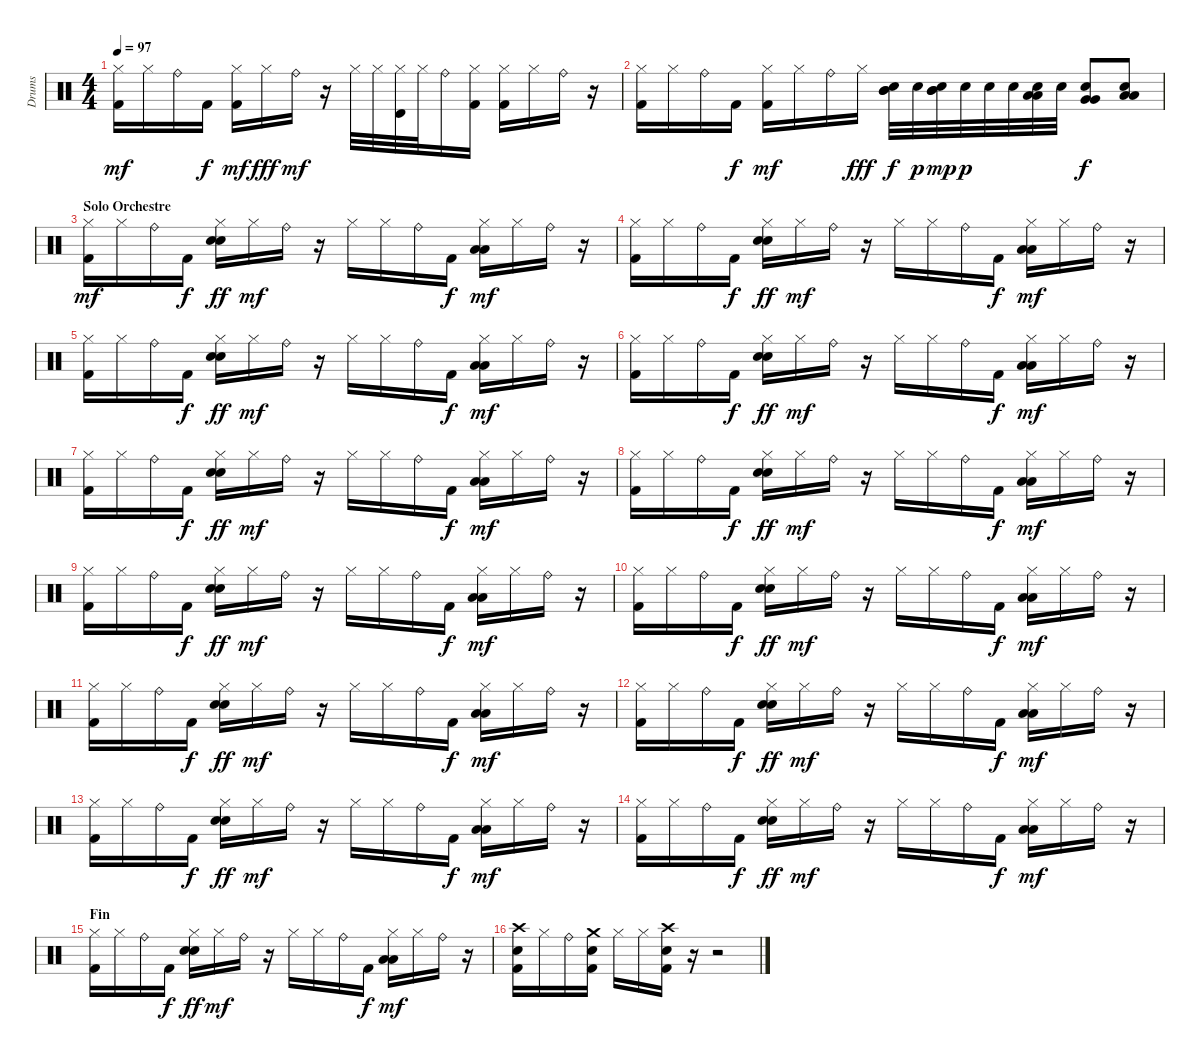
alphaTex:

\track ("Drums" "Drums") {instrument percussion}
\staff {score}
\articulation defaults
\ts (4 4)
\tempo 97
\clef neutral
\ks c
("Hi-Hat (closed)" "Kick (hit) 2").16{dy mf} "Hi-Hat (closed)".16 "Ride (bell)".16 "Kick (hit) 2".16{dy f} ("Hi-Hat (closed)" "Kick (hit) 2").16{dy mf} "Hi-Hat (closed)".16{dy fff} "Ride (bell)".16{dy mf} r.16 "Hi-Hat (closed)".32 "Hi-Hat (closed)".32 ("Hi-Hat (closed)" "Timbale high (hit)").32 "Hi-Hat (closed)".32 "Ride (bell)".16 ("Hi-Hat (closed)" "Kick (hit) 2").16 ("Hi-Hat (closed)" "Kick (hit) 2").16 "Hi-Hat (closed)".16 "Ride (bell)".16 r.16 |
("Hi-Hat (closed)" "Kick (hit) 2").16 "Hi-Hat (closed)".16 "Ride (bell)".16 "Kick (hit) 2".16{dy f} ("Hi-Hat (closed)" "Kick (hit) 2").16{dy mf} "Hi-Hat (closed)".16 "Ride (bell)".16 "Hi-Hat (closed)".16{dy fff} ("Electric Snare (hit)" "Mid Tom (hit)" "Mid Tom (hit)").32{dy f} "Electric Snare (hit)".32{dy p} ("Electric Snare (hit)" "Mid Tom (hit)" "Mid Tom (hit)").32{dy mp} "Electric Snare (hit)".32{dy p} "Electric Snare (hit)".32 "Electric Snare (hit)".32 ("Electric Snare (hit)" "Low Tom (hit)" "Low Tom (hit)").32 "Electric Snare (hit)".32 ("Electric Snare (hit)" "Very Low Tom (hit)" "Very Low Tom (hit)").8{dy f} ("Electric Snare (hit)" "Low Floor Tom (hit)" "Low Floor Tom (hit)").8 |
\section ("" "Solo Orchestre")
("Hi-Hat (closed)" "Kick (hit) 2").16{dy mf} "Hi-Hat (closed)".16 "Ride (bell)".16 "Kick (hit) 2".16{dy f} ("Hi-Hat (closed)" "Electric Snare (hit)" "Snare (hit) 2").16{dy ff} "Hi-Hat (closed)".16{dy mf} "Ride (bell)".16 r.16 "Hi-Hat (closed)".16 "Hi-Hat (closed)".16 "Ride (bell)".16 "Kick (hit) 2".16{dy f} ("Hi-Hat (closed)" "Low Tom (hit)" "Low Tom (hit)").16{dy mf} "Hi-Hat (closed)".16 "Ride (bell)".16 r.16 |
("Hi-Hat (closed)" "Kick (hit) 2").16 "Hi-Hat (closed)".16 "Ride (bell)".16 "Kick (hit) 2".16{dy f} ("Hi-Hat (closed)" "Electric Snare (hit)" "Snare (hit) 2").16{dy ff} "Hi-Hat (closed)".16{dy mf} "Ride (bell)".16 r.16 "Hi-Hat (closed)".16 "Hi-Hat (closed)".16 "Ride (bell)".16 "Kick (hit) 2".16{dy f} ("Hi-Hat (closed)" "Low Tom (hit)" "Low Tom (hit)").16{dy mf} "Hi-Hat (closed)".16 "Ride (bell)".16 r.16 |
("Hi-Hat (closed)" "Kick (hit) 2").16 "Hi-Hat (closed)".16 "Ride (bell)".16 "Kick (hit) 2".16{dy f} ("Hi-Hat (closed)" "Electric Snare (hit)" "Snare (hit) 2").16{dy ff} "Hi-Hat (closed)".16{dy mf} "Ride (bell)".16 r.16 "Hi-Hat (closed)".16 "Hi-Hat (closed)".16 "Ride (bell)".16 "Kick (hit) 2".16{dy f} ("Hi-Hat (closed)" "Low Tom (hit)" "Low Tom (hit)").16{dy mf} "Hi-Hat (closed)".16 "Ride (bell)".16 r.16 |
("Hi-Hat (closed)" "Kick (hit) 2").16 "Hi-Hat (closed)".16 "Ride (bell)".16 "Kick (hit) 2".16{dy f} ("Hi-Hat (closed)" "Electric Snare (hit)" "Snare (hit) 2").16{dy ff} "Hi-Hat (closed)".16{dy mf} "Ride (bell)".16 r.16 "Hi-Hat (closed)".16 "Hi-Hat (closed)".16 "Ride (bell)".16 "Kick (hit) 2".16{dy f} ("Hi-Hat (closed)" "Low Tom (hit)" "Low Tom (hit)").16{dy mf} "Hi-Hat (closed)".16 "Ride (bell)".16 r.16 |
("Hi-Hat (closed)" "Kick (hit) 2").16 "Hi-Hat (closed)".16 "Ride (bell)".16 "Kick (hit) 2".16{dy f} ("Hi-Hat (closed)" "Electric Snare (hit)" "Snare (hit) 2").16{dy ff} "Hi-Hat (closed)".16{dy mf} "Ride (bell)".16 r.16 "Hi-Hat (closed)".16 "Hi-Hat (closed)".16 "Ride (bell)".16 "Kick (hit) 2".16{dy f} ("Hi-Hat (closed)" "Low Tom (hit)" "Low Tom (hit)").16{dy mf} "Hi-Hat (closed)".16 "Ride (bell)".16 r.16 |
("Hi-Hat (closed)" "Kick (hit) 2").16 "Hi-Hat (closed)".16 "Ride (bell)".16 "Kick (hit) 2".16{dy f} ("Hi-Hat (closed)" "Electric Snare (hit)" "Snare (hit) 2").16{dy ff} "Hi-Hat (closed)".16{dy mf} "Ride (bell)".16 r.16 "Hi-Hat (closed)".16 "Hi-Hat (closed)".16 "Ride (bell)".16 "Kick (hit) 2".16{dy f} ("Hi-Hat (closed)" "Low Tom (hit)" "Low Tom (hit)").16{dy mf} "Hi-Hat (closed)".16 "Ride (bell)".16 r.16 |
("Hi-Hat (closed)" "Kick (hit) 2").16 "Hi-Hat (closed)".16 "Ride (bell)".16 "Kick (hit) 2".16{dy f} ("Hi-Hat (closed)" "Electric Snare (hit)" "Snare (hit) 2").16{dy ff} "Hi-Hat (closed)".16{dy mf} "Ride (bell)".16 r.16 "Hi-Hat (closed)".16 "Hi-Hat (closed)".16 "Ride (bell)".16 "Kick (hit) 2".16{dy f} ("Hi-Hat (closed)" "Low Tom (hit)" "Low Tom (hit)").16{dy mf} "Hi-Hat (closed)".16 "Ride (bell)".16 r.16 |
("Hi-Hat (closed)" "Kick (hit) 2").16 "Hi-Hat (closed)".16 "Ride (bell)".16 "Kick (hit) 2".16{dy f} ("Hi-Hat (closed)" "Electric Snare (hit)" "Snare (hit) 2").16{dy ff} "Hi-Hat (closed)".16{dy mf} "Ride (bell)".16 r.16 "Hi-Hat (closed)".16 "Hi-Hat (closed)".16 "Ride (bell)".16 "Kick (hit) 2".16{dy f} ("Hi-Hat (closed)" "Low Tom (hit)" "Low Tom (hit)").16{dy mf} "Hi-Hat (closed)".16 "Ride (bell)".16 r.16 |
("Hi-Hat (closed)" "Kick (hit) 2").16 "Hi-Hat (closed)".16 "Ride (bell)".16 "Kick (hit) 2".16{dy f} ("Hi-Hat (closed)" "Electric Snare (hit)" "Snare (hit) 2").16{dy ff} "Hi-Hat (closed)".16{dy mf} "Ride (bell)".16 r.16 "Hi-Hat (closed)".16 "Hi-Hat (closed)".16 "Ride (bell)".16 "Kick (hit) 2".16{dy f} ("Hi-Hat (closed)" "Low Tom (hit)" "Low Tom (hit)").16{dy mf} "Hi-Hat (closed)".16 "Ride (bell)".16 r.16 |
("Hi-Hat (closed)" "Kick (hit) 2").16 "Hi-Hat (closed)".16 "Ride (bell)".16 "Kick (hit) 2".16{dy f} ("Hi-Hat (closed)" "Electric Snare (hit)" "Snare (hit) 2").16{dy ff} "Hi-Hat (closed)".16{dy mf} "Ride (bell)".16 r.16 "Hi-Hat (closed)".16 "Hi-Hat (closed)".16 "Ride (bell)".16 "Kick (hit) 2".16{dy f} ("Hi-Hat (closed)" "Low Tom (hit)" "Low Tom (hit)").16{dy mf} "Hi-Hat (closed)".16 "Ride (bell)".16 r.16 |
("Hi-Hat (closed)" "Kick (hit) 2").16 "Hi-Hat (closed)".16 "Ride (bell)".16 "Kick (hit) 2".16{dy f} ("Hi-Hat (closed)" "Electric Snare (hit)" "Snare (hit) 2").16{dy ff} "Hi-Hat (closed)".16{dy mf} "Ride (bell)".16 r.16 "Hi-Hat (closed)".16 "Hi-Hat (closed)".16 "Ride (bell)".16 "Kick (hit) 2".16{dy f} ("Hi-Hat (closed)" "Low Tom (hit)" "Low Tom (hit)").16{dy mf} "Hi-Hat (closed)".16 "Ride (bell)".16 r.16 |
("Hi-Hat (closed)" "Kick (hit) 2").16 "Hi-Hat (closed)".16 "Ride (bell)".16 "Kick (hit) 2".16{dy f} ("Hi-Hat (closed)" "Electric Snare (hit)" "Snare (hit) 2").16{dy ff} "Hi-Hat (closed)".16{dy mf} "Ride (bell)".16 r.16 "Hi-Hat (closed)".16 "Hi-Hat (closed)".16 "Ride (bell)".16 "Kick (hit) 2".16{dy f} ("Hi-Hat (closed)" "Low Tom (hit)" "Low Tom (hit)").16{dy mf} "Hi-Hat (closed)".16 "Ride (bell)".16 r.16 |
\section ("" "Fin")
("Hi-Hat (closed)" "Kick (hit) 2").16 "Hi-Hat (closed)".16 "Ride (bell)".16 "Kick (hit) 2".16{dy f} ("Hi-Hat (closed)" "Electric Snare (hit)" "Snare (hit) 2").16{dy ff} "Hi-Hat (closed)".16{dy mf} "Ride (bell)".16 r.16 "Hi-Hat (closed)".16 "Hi-Hat (closed)".16 "Ride (bell)".16 "Kick (hit) 2".16{dy f} ("Hi-Hat (closed)" "Low Tom (hit)" "Low Tom (hit)").16{dy mf} "Hi-Hat (closed)".16 "Ride (bell)".16 r.16 |
("Crash high (hit)" "Electric Snare (hit)" "Kick (hit) 2").16 "Hi-Hat (closed)".16 "Ride (bell)".16 ("Crash medium (hit)" "Electric Snare (hit)" "Kick (hit) 2").16 "Hi-Hat (closed)".16 "Hi-Hat (closed)".16 ("Crash high (hit)" "Electric Snare (hit)" "Kick (hit) 2").16 r.16 r.2
